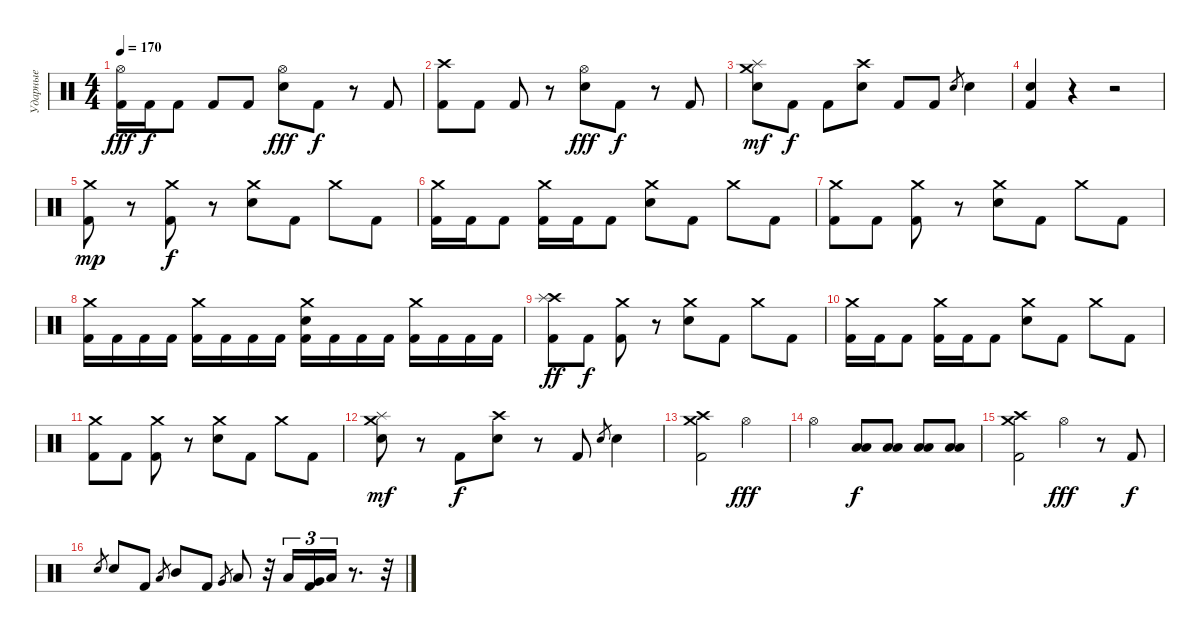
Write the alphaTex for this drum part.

\track ("Ударные" "Ударные") {instrument percussion}
\staff {score}
\articulation defaults
\ts (4 4)
\tempo 170
\clef neutral
\ks c
("Hi-Hat (open)" "Kick (hit) 2").16{dy fff} "Kick (hit) 2".16{dy f} "Kick (hit) 2".8 "Kick (hit) 2".8 "Kick (hit) 2".8 ("Hi-Hat (open)" "Electric Snare (hit)").8{dy fff} "Kick (hit) 2".8{dy f} r.8 "Kick (hit) 2".8 |
("Crash high (hit)" "Kick (hit) 2").8 "Kick (hit) 2".8 "Kick (hit) 2".8 r.8 ("Hi-Hat (open)" "Electric Snare (hit)").8{dy fff} "Kick (hit) 2".8{dy f} r.8 "Kick (hit) 2".8 |
("Crash medium (hit)" "Splash (hit)" "Electric Snare (hit)").8{dy mf} "Kick (hit) 2".8{dy f} "Kick (hit) 2".8 ("Crash high (hit)" "Electric Snare (hit)").8 "Kick (hit) 2".8 "Kick (hit) 2".8 "Electric Snare (hit)".8{gr} "Electric Snare (hit)".4 |
("Electric Snare (hit)" "Kick (hit) 2").4 r.4 r.2 |
("Crash medium (hit)" "Kick (hit) 2").8{dy mp} r.8 ("Crash medium (hit)" "Kick (hit) 2").8{dy f} r.8 ("Crash medium (hit)" "Electric Snare (hit)").8 "Kick (hit) 2".8 "Crash medium (hit)".8 "Kick (hit) 2".8 |
("Crash medium (hit)" "Kick (hit) 2").16 "Kick (hit) 2".16 "Kick (hit) 2".8 ("Crash medium (hit)" "Kick (hit) 2").16 "Kick (hit) 2".16 "Kick (hit) 2".8 ("Crash medium (hit)" "Electric Snare (hit)").8 "Kick (hit) 2".8 "Crash medium (hit)".8 "Kick (hit) 2".8 |
("Crash medium (hit)" "Kick (hit) 2").8 "Kick (hit) 2".8 ("Crash medium (hit)" "Kick (hit) 2").8 r.8 ("Crash medium (hit)" "Electric Snare (hit)").8 "Kick (hit) 2".8 "Crash medium (hit)".8 "Kick (hit) 2".8 |
("Crash medium (hit)" "Kick (hit) 2").16 "Kick (hit) 2".16 "Kick (hit) 2".16 "Kick (hit) 2".16 ("Crash medium (hit)" "Kick (hit) 2").16 "Kick (hit) 2".16 "Kick (hit) 2".16 "Kick (hit) 2".16 ("Crash medium (hit)" "Electric Snare (hit)" "Kick (hit) 2").16 "Kick (hit) 2".16 "Kick (hit) 2".16 "Kick (hit) 2".16 ("Crash medium (hit)" "Kick (hit) 2").16 "Kick (hit) 2".16 "Kick (hit) 2".16 "Kick (hit) 2".16 |
("Crash high (hit)" "Splash (hit)" "Kick (hit) 2").8{dy ff} "Kick (hit) 2".8{dy f} ("Crash medium (hit)" "Kick (hit) 2").8 r.8 ("Crash medium (hit)" "Electric Snare (hit)").8 "Kick (hit) 2".8 "Crash medium (hit)".8 "Kick (hit) 2".8 |
("Crash medium (hit)" "Kick (hit) 2").16 "Kick (hit) 2".16 "Kick (hit) 2".8 ("Crash medium (hit)" "Kick (hit) 2").16 "Kick (hit) 2".16 "Kick (hit) 2".8 ("Crash medium (hit)" "Electric Snare (hit)").8 "Kick (hit) 2".8 "Crash medium (hit)".8 "Kick (hit) 2".8 |
("Crash medium (hit)" "Kick (hit) 2").8 "Kick (hit) 2".8 ("Crash medium (hit)" "Kick (hit) 2").8 r.8 ("Crash medium (hit)" "Electric Snare (hit)").8 "Kick (hit) 2".8 "Crash medium (hit)".8 "Kick (hit) 2".8 |
("Crash medium (hit)" "Splash (hit)" "Electric Snare (hit)").8{dy mf} r.8 "Kick (hit) 2".8{dy f} ("Crash high (hit)" "Electric Snare (hit)").8 r.8 "Kick (hit) 2".8 "Electric Snare (hit)".8{gr} "Electric Snare (hit)".4 |
("Crash medium (hit)" "Crash high (hit)" "Kick (hit) 2").2 "Hi-Hat (open)".2{dy fff} |
"Hi-Hat (open)".2 ("Low Floor Tom (hit)" "Low Tom (hit)").8{dy f} ("Low Floor Tom (hit)" "Low Tom (hit)").8 ("Low Floor Tom (hit)" "Low Tom (hit)").8 ("Low Floor Tom (hit)" "Low Tom (hit)").8 |
("Crash medium (hit)" "Crash high (hit)" "Kick (hit) 2").2 "Hi-Hat (open)".4{dy fff} r.8 "Kick (hit) 2".8{dy f} |
"Electric Snare (hit)".8{gr} "Electric Snare (hit)".8 "Kick (hit) 2".8 "Low Tom (hit)".8{gr} "Mid Tom (hit)".8 "Kick (hit) 2".8 "Very Low Tom (hit)".8{gr} "Low Tom (hit)".8 r.32 "Low Tom (hit)".16{tu (3 2)} ("Very Low Tom (hit)" "Kick (hit) 2").16{tu (3 2)} "Low Floor Tom (hit)".16{tu (3 2)} r.8{d} r.32
